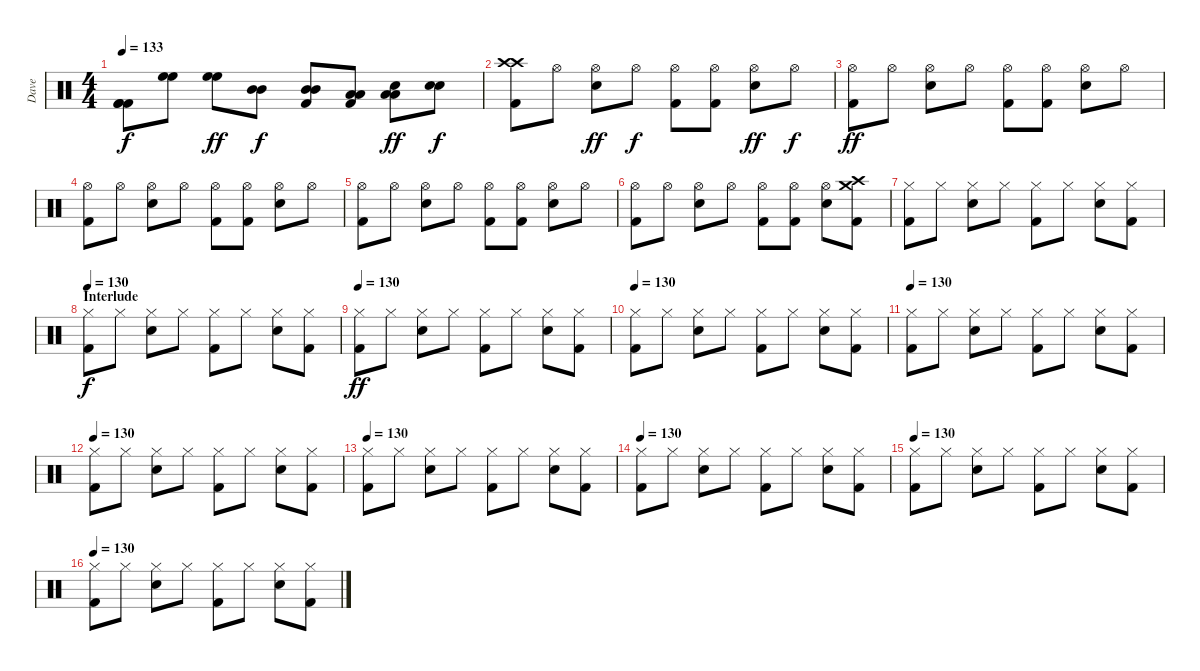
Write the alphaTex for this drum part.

\track ("Dave" "Dave") {instrument percussion}
\staff {score}
\articulation defaults
\ts (4 4)
\tempo 133
\clef neutral
\ks c
("Kick (hit) 2" "Kick (hit) 2" "Kick (hit) 2").8{dy f} ("High Floor Tom (hit)" "High Floor Tom (hit)").8 ("High Floor Tom (hit)" "High Floor Tom (hit)").8{dy ff} ("Mid Tom (hit)" "Mid Tom (hit)").8{dy f} ("Mid Tom (hit)" "Mid Tom (hit)" "Kick (hit) 2").8 ("Low Tom (hit)" "Low Tom (hit)" "Kick (hit) 2").8 ("Low Tom (hit)" "Snare (hit) 2" "Low Tom (hit)").8{dy ff} ("Snare (hit) 2" "Snare (hit) 2").8{dy f} |
("Crash high (hit)" "Crash high (hit)" "Kick (hit) 2").8 "Hi-Hat (open)".8 ("Hi-Hat (open)" "Snare (hit) 2").8{dy ff} "Hi-Hat (open)".8{dy f} ("Hi-Hat (open)" "Kick (hit) 2").8 ("Hi-Hat (open)" "Kick (hit) 2").8 ("Hi-Hat (open)" "Snare (hit) 2").8{dy ff} "Hi-Hat (open)".8{dy f} |
("Hi-Hat (open)" "Kick (hit) 2").8{dy ff} "Hi-Hat (open)".8 ("Hi-Hat (open)" "Snare (hit) 2").8 "Hi-Hat (open)".8 ("Hi-Hat (open)" "Kick (hit) 2").8 ("Hi-Hat (open)" "Kick (hit) 2").8 ("Hi-Hat (open)" "Snare (hit) 2").8 "Hi-Hat (open)".8 |
("Hi-Hat (open)" "Kick (hit) 2").8 "Hi-Hat (open)".8 ("Hi-Hat (open)" "Snare (hit) 2").8 "Hi-Hat (open)".8 ("Hi-Hat (open)" "Kick (hit) 2").8 ("Hi-Hat (open)" "Kick (hit) 2").8 ("Hi-Hat (open)" "Snare (hit) 2").8 "Hi-Hat (open)".8 |
("Hi-Hat (open)" "Kick (hit) 2").8 "Hi-Hat (open)".8 ("Hi-Hat (open)" "Snare (hit) 2").8 "Hi-Hat (open)".8 ("Hi-Hat (open)" "Kick (hit) 2").8 ("Hi-Hat (open)" "Kick (hit) 2").8 ("Hi-Hat (open)" "Snare (hit) 2").8 "Hi-Hat (open)".8 |
("Hi-Hat (open)" "Kick (hit) 2").8 "Hi-Hat (open)".8 ("Hi-Hat (open)" "Snare (hit) 2").8 "Hi-Hat (open)".8 ("Hi-Hat (open)" "Kick (hit) 2").8 ("Hi-Hat (open)" "Kick (hit) 2").8 ("Hi-Hat (open)" "Snare (hit) 2").8 ("Crash medium (hit)" "Crash high (hit)" "Kick (hit) 2").8 |
("Hi-Hat (closed)" "Kick (hit) 2").8 "Hi-Hat (closed)".8 ("Hi-Hat (closed)" "Snare (hit) 2").8 "Hi-Hat (closed)".8 ("Hi-Hat (closed)" "Kick (hit) 2").8 "Hi-Hat (closed)".8 ("Hi-Hat (closed)" "Snare (hit) 2").8 ("Hi-Hat (closed)" "Kick (hit) 2").8 |
\section ("" "Interlude")
\tempo 130
("Hi-Hat (closed)" "Kick (hit) 2").8{dy f} "Hi-Hat (closed)".8 ("Hi-Hat (closed)" "Snare (hit) 2").8 "Hi-Hat (closed)".8 ("Hi-Hat (closed)" "Kick (hit) 2").8 "Hi-Hat (closed)".8 ("Hi-Hat (closed)" "Snare (hit) 2").8 ("Hi-Hat (closed)" "Kick (hit) 2").8 |
\tempo 130
("Hi-Hat (closed)" "Kick (hit) 2").8{dy ff} "Hi-Hat (closed)".8 ("Hi-Hat (closed)" "Snare (hit) 2").8 "Hi-Hat (closed)".8 ("Hi-Hat (closed)" "Kick (hit) 2").8 "Hi-Hat (closed)".8 ("Hi-Hat (closed)" "Snare (hit) 2").8 ("Hi-Hat (closed)" "Kick (hit) 2").8 |
\tempo 130
("Hi-Hat (closed)" "Kick (hit) 2").8 "Hi-Hat (closed)".8 ("Hi-Hat (closed)" "Snare (hit) 2").8 "Hi-Hat (closed)".8 ("Hi-Hat (closed)" "Kick (hit) 2").8 "Hi-Hat (closed)".8 ("Hi-Hat (closed)" "Snare (hit) 2").8 ("Hi-Hat (closed)" "Kick (hit) 2").8 |
\tempo 130
("Hi-Hat (closed)" "Kick (hit) 2").8 "Hi-Hat (closed)".8 ("Hi-Hat (closed)" "Snare (hit) 2").8 "Hi-Hat (closed)".8 ("Hi-Hat (closed)" "Kick (hit) 2").8 "Hi-Hat (closed)".8 ("Hi-Hat (closed)" "Snare (hit) 2").8 ("Hi-Hat (closed)" "Kick (hit) 2").8 |
\tempo 130
("Hi-Hat (closed)" "Kick (hit) 2").8 "Hi-Hat (closed)".8 ("Hi-Hat (closed)" "Snare (hit) 2").8 "Hi-Hat (closed)".8 ("Hi-Hat (closed)" "Kick (hit) 2").8 "Hi-Hat (closed)".8 ("Hi-Hat (closed)" "Snare (hit) 2").8 ("Hi-Hat (closed)" "Kick (hit) 2").8 |
\tempo 130
("Hi-Hat (closed)" "Kick (hit) 2").8 "Hi-Hat (closed)".8 ("Hi-Hat (closed)" "Snare (hit) 2").8 "Hi-Hat (closed)".8 ("Hi-Hat (closed)" "Kick (hit) 2").8 "Hi-Hat (closed)".8 ("Hi-Hat (closed)" "Snare (hit) 2").8 ("Hi-Hat (closed)" "Kick (hit) 2").8 |
\tempo 130
("Hi-Hat (closed)" "Kick (hit) 2").8 "Hi-Hat (closed)".8 ("Hi-Hat (closed)" "Snare (hit) 2").8 "Hi-Hat (closed)".8 ("Hi-Hat (closed)" "Kick (hit) 2").8 "Hi-Hat (closed)".8 ("Hi-Hat (closed)" "Snare (hit) 2").8 ("Hi-Hat (closed)" "Kick (hit) 2").8 |
\tempo 130
("Hi-Hat (closed)" "Kick (hit) 2").8 "Hi-Hat (closed)".8 ("Hi-Hat (closed)" "Snare (hit) 2").8 "Hi-Hat (closed)".8 ("Hi-Hat (closed)" "Kick (hit) 2").8 "Hi-Hat (closed)".8 ("Hi-Hat (closed)" "Snare (hit) 2").8 ("Hi-Hat (closed)" "Kick (hit) 2").8 |
\tempo 130
("Hi-Hat (closed)" "Kick (hit) 2").8 "Hi-Hat (closed)".8 ("Hi-Hat (closed)" "Snare (hit) 2").8 "Hi-Hat (closed)".8 ("Hi-Hat (closed)" "Kick (hit) 2").8 "Hi-Hat (closed)".8 ("Hi-Hat (closed)" "Snare (hit) 2").8 ("Hi-Hat (closed)" "Kick (hit) 2").8
